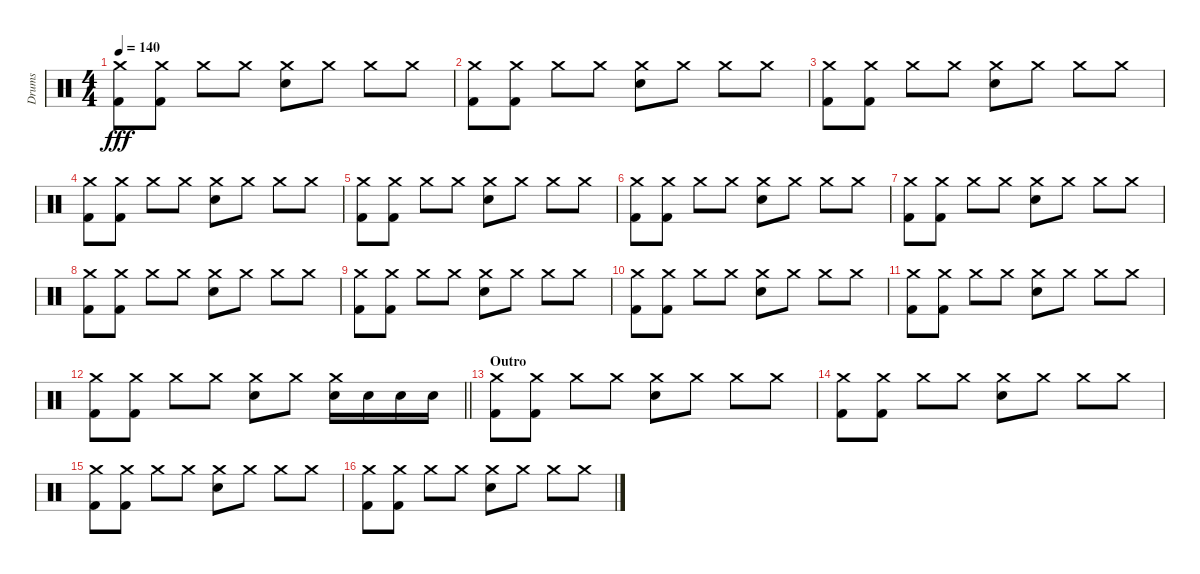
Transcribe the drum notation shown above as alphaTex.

\track ("Drums" "Drums") {instrument percussion}
\staff {score}
\articulation defaults
\ts (4 4)
\tempo 140
\clef neutral
\ks c
("Crash medium (hit)" "Kick (hit) 2").8{dy fff} ("Crash medium (hit)" "Kick (hit) 2").8 "Crash medium (hit)".8 "Crash medium (hit)".8 ("Crash medium (hit)" "Electric Snare (hit)").8 "Crash medium (hit)".8 "Crash medium (hit)".8 "Crash medium (hit)".8 |
("Crash medium (hit)" "Kick (hit) 2").8 ("Crash medium (hit)" "Kick (hit) 2").8 "Crash medium (hit)".8 "Crash medium (hit)".8 ("Crash medium (hit)" "Electric Snare (hit)").8 "Crash medium (hit)".8 "Crash medium (hit)".8 "Crash medium (hit)".8 |
("Crash medium (hit)" "Kick (hit) 2").8 ("Crash medium (hit)" "Kick (hit) 2").8 "Crash medium (hit)".8 "Crash medium (hit)".8 ("Crash medium (hit)" "Electric Snare (hit)").8 "Crash medium (hit)".8 "Crash medium (hit)".8 "Crash medium (hit)".8 |
("Crash medium (hit)" "Kick (hit) 2").8 ("Crash medium (hit)" "Kick (hit) 2").8 "Crash medium (hit)".8 "Crash medium (hit)".8 ("Crash medium (hit)" "Electric Snare (hit)").8 "Crash medium (hit)".8 "Crash medium (hit)".8 "Crash medium (hit)".8 |
("Crash medium (hit)" "Kick (hit) 2").8 ("Crash medium (hit)" "Kick (hit) 2").8 "Crash medium (hit)".8 "Crash medium (hit)".8 ("Crash medium (hit)" "Electric Snare (hit)").8 "Crash medium (hit)".8 "Crash medium (hit)".8 "Crash medium (hit)".8 |
("Crash medium (hit)" "Kick (hit) 2").8 ("Crash medium (hit)" "Kick (hit) 2").8 "Crash medium (hit)".8 "Crash medium (hit)".8 ("Crash medium (hit)" "Electric Snare (hit)").8 "Crash medium (hit)".8 "Crash medium (hit)".8 "Crash medium (hit)".8 |
("Crash medium (hit)" "Kick (hit) 2").8 ("Crash medium (hit)" "Kick (hit) 2").8 "Crash medium (hit)".8 "Crash medium (hit)".8 ("Crash medium (hit)" "Electric Snare (hit)").8 "Crash medium (hit)".8 "Crash medium (hit)".8 "Crash medium (hit)".8 |
("Crash medium (hit)" "Kick (hit) 2").8 ("Crash medium (hit)" "Kick (hit) 2").8 "Crash medium (hit)".8 "Crash medium (hit)".8 ("Crash medium (hit)" "Electric Snare (hit)").8 "Crash medium (hit)".8 "Crash medium (hit)".8 "Crash medium (hit)".8 |
("Crash medium (hit)" "Kick (hit) 2").8 ("Crash medium (hit)" "Kick (hit) 2").8 "Crash medium (hit)".8 "Crash medium (hit)".8 ("Crash medium (hit)" "Electric Snare (hit)").8 "Crash medium (hit)".8 "Crash medium (hit)".8 "Crash medium (hit)".8 |
("Crash medium (hit)" "Kick (hit) 2").8 ("Crash medium (hit)" "Kick (hit) 2").8 "Crash medium (hit)".8 "Crash medium (hit)".8 ("Crash medium (hit)" "Electric Snare (hit)").8 "Crash medium (hit)".8 "Crash medium (hit)".8 "Crash medium (hit)".8 |
("Crash medium (hit)" "Kick (hit) 2").8 ("Crash medium (hit)" "Kick (hit) 2").8 "Crash medium (hit)".8 "Crash medium (hit)".8 ("Crash medium (hit)" "Electric Snare (hit)").8 "Crash medium (hit)".8 "Crash medium (hit)".8 "Crash medium (hit)".8 |
\barLineRight lightlight
("Crash medium (hit)" "Kick (hit) 2").8 ("Crash medium (hit)" "Kick (hit) 2").8 "Crash medium (hit)".8 "Crash medium (hit)".8 ("Crash medium (hit)" "Electric Snare (hit)").8 "Crash medium (hit)".8 ("Crash medium (hit)" "Electric Snare (hit)").16 "Electric Snare (hit)".16 "Electric Snare (hit)".16 "Electric Snare (hit)".16 |
\section ("" "Outro")
("Crash medium (hit)" "Kick (hit) 2").8 ("Crash medium (hit)" "Kick (hit) 2").8 "Crash medium (hit)".8 "Crash medium (hit)".8 ("Crash medium (hit)" "Electric Snare (hit)").8 "Crash medium (hit)".8 "Crash medium (hit)".8 "Crash medium (hit)".8 |
("Crash medium (hit)" "Kick (hit) 2").8 ("Crash medium (hit)" "Kick (hit) 2").8 "Crash medium (hit)".8 "Crash medium (hit)".8 ("Crash medium (hit)" "Electric Snare (hit)").8 "Crash medium (hit)".8 "Crash medium (hit)".8 "Crash medium (hit)".8 |
("Crash medium (hit)" "Kick (hit) 2").8 ("Crash medium (hit)" "Kick (hit) 2").8 "Crash medium (hit)".8 "Crash medium (hit)".8 ("Crash medium (hit)" "Electric Snare (hit)").8 "Crash medium (hit)".8 "Crash medium (hit)".8 "Crash medium (hit)".8 |
("Crash medium (hit)" "Kick (hit) 2").8 ("Crash medium (hit)" "Kick (hit) 2").8 "Crash medium (hit)".8 "Crash medium (hit)".8 ("Crash medium (hit)" "Electric Snare (hit)").8 "Crash medium (hit)".8 "Crash medium (hit)".8 "Crash medium (hit)".8
